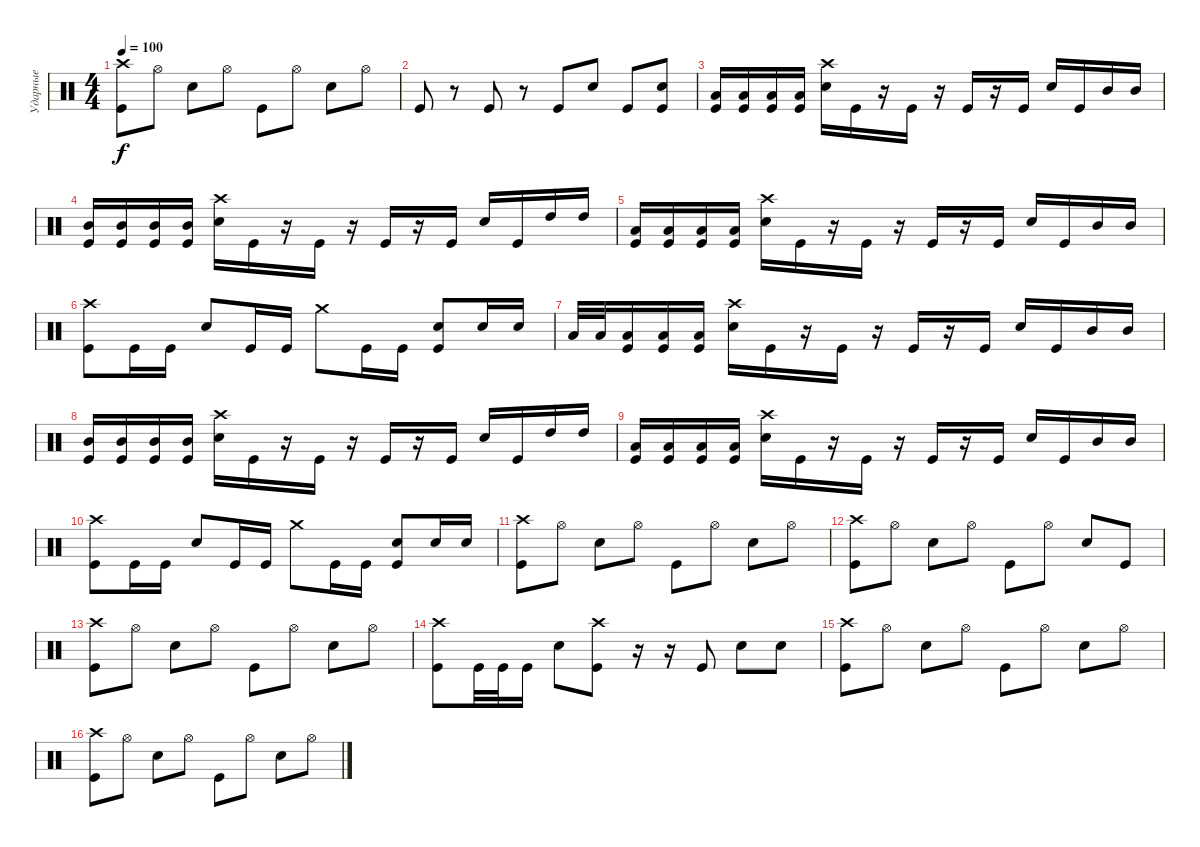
\track ("Ударные" "Ударные") {instrument percussion}
\staff {score}
\articulation defaults
\ts (4 4)
\tempo 100
\clef neutral
\ks c
("Crash high (hit)" "Kick (hit)").8{dy f} "Hi-Hat (open)".8 "Electric Snare (hit)".8 "Hi-Hat (open)".8 "Kick (hit)".8 "Hi-Hat (open)".8 "Electric Snare (hit)".8 "Hi-Hat (open)".8 |
"Kick (hit)".8 r.8 "Kick (hit)".8 r.8 "Kick (hit)".8 "Electric Snare (hit)".8 "Kick (hit)".8 ("Electric Snare (hit)" "Kick (hit)").8 |
("Low Tom (hit)" "Kick (hit)").16 ("Low Tom (hit)" "Kick (hit)").16 ("Low Tom (hit)" "Kick (hit)").16 ("Low Tom (hit)" "Kick (hit)").16 ("Crash high (hit)" "Electric Snare (hit)").16 "Kick (hit)".16 r.16 "Kick (hit)".16 r.16 "Kick (hit)".16 r.16 "Kick (hit)".16 "Electric Snare (hit)".16 "Kick (hit)".16 "Mid Tom (hit)".16 "Mid Tom (hit)".16 |
("Mid Tom (hit)" "Kick (hit)").16 ("Mid Tom (hit)" "Kick (hit)").16 ("Mid Tom (hit)" "Kick (hit)").16 ("Mid Tom (hit)" "Kick (hit)").16 ("Crash high (hit)" "Electric Snare (hit)").16 "Kick (hit)".16 r.16 "Kick (hit)".16 r.16 "Kick (hit)".16 r.16 "Kick (hit)".16 "Electric Snare (hit)".16 "Kick (hit)".16 "High Tom (hit)".16 "High Tom (hit)".16 |
("Low Tom (hit)" "Kick (hit)").16 ("Low Tom (hit)" "Kick (hit)").16 ("Low Tom (hit)" "Kick (hit)").16 ("Low Tom (hit)" "Kick (hit)").16 ("Crash high (hit)" "Electric Snare (hit)").16 "Kick (hit)".16 r.16 "Kick (hit)".16 r.16 "Kick (hit)".16 r.16 "Kick (hit)".16 "Electric Snare (hit)".16 "Kick (hit)".16 "Mid Tom (hit)".16 "Mid Tom (hit)".16 |
("Crash high (hit)" "Kick (hit)").8 "Kick (hit)".16 "Kick (hit)".16 "Electric Snare (hit)".8 "Kick (hit)".16 "Kick (hit)".16 "Crash medium (hit)".8 "Kick (hit)".16 "Kick (hit)".16 ("Electric Snare (hit)" "Kick (hit)").8 "Electric Snare (hit)".16 "Electric Snare (hit)".16 |
"Low Tom (hit)".32 "Low Tom (hit)".32 ("Low Tom (hit)" "Kick (hit)").16 ("Low Tom (hit)" "Kick (hit)").16 ("Low Tom (hit)" "Kick (hit)").16 ("Crash high (hit)" "Electric Snare (hit)").16 "Kick (hit)".16 r.16 "Kick (hit)".16 r.16 "Kick (hit)".16 r.16 "Kick (hit)".16 "Electric Snare (hit)".16 "Kick (hit)".16 "Mid Tom (hit)".16 "Mid Tom (hit)".16 |
("Mid Tom (hit)" "Kick (hit)").16 ("Mid Tom (hit)" "Kick (hit)").16 ("Mid Tom (hit)" "Kick (hit)").16 ("Mid Tom (hit)" "Kick (hit)").16 ("Crash high (hit)" "Electric Snare (hit)").16 "Kick (hit)".16 r.16 "Kick (hit)".16 r.16 "Kick (hit)".16 r.16 "Kick (hit)".16 "Electric Snare (hit)".16 "Kick (hit)".16 "High Tom (hit)".16 "High Tom (hit)".16 |
("Low Tom (hit)" "Kick (hit)").16 ("Low Tom (hit)" "Kick (hit)").16 ("Low Tom (hit)" "Kick (hit)").16 ("Low Tom (hit)" "Kick (hit)").16 ("Crash high (hit)" "Electric Snare (hit)").16 "Kick (hit)".16 r.16 "Kick (hit)".16 r.16 "Kick (hit)".16 r.16 "Kick (hit)".16 "Electric Snare (hit)".16 "Kick (hit)".16 "Mid Tom (hit)".16 "Mid Tom (hit)".16 |
("Crash high (hit)" "Kick (hit)").8 "Kick (hit)".16 "Kick (hit)".16 "Electric Snare (hit)".8 "Kick (hit)".16 "Kick (hit)".16 "Crash medium (hit)".8 "Kick (hit)".16 "Kick (hit)".16 ("Electric Snare (hit)" "Kick (hit)").8 "Electric Snare (hit)".16 "Electric Snare (hit)".16 |
("Crash high (hit)" "Kick (hit)").8 "Hi-Hat (open)".8 "Electric Snare (hit)".8 "Hi-Hat (open)".8 "Kick (hit)".8 "Hi-Hat (open)".8 "Electric Snare (hit)".8 "Hi-Hat (open)".8 |
("Crash high (hit)" "Kick (hit)").8 "Hi-Hat (open)".8 "Electric Snare (hit)".8 "Hi-Hat (open)".8 "Kick (hit)".8 "Hi-Hat (open)".8 "Electric Snare (hit)".8 "Kick (hit)".8 |
("Crash high (hit)" "Kick (hit)").8 "Hi-Hat (open)".8 "Electric Snare (hit)".8 "Hi-Hat (open)".8 "Kick (hit)".8 "Hi-Hat (open)".8 "Electric Snare (hit)".8 "Hi-Hat (open)".8 |
("Crash high (hit)" "Kick (hit)").8 "Kick (hit)".32 "Kick (hit)".32 "Kick (hit)".16 "Electric Snare (hit)".8 ("Crash high (hit)" "Kick (hit)").8 r.16 r.16 "Kick (hit)".8 "Electric Snare (hit)".8 "Electric Snare (hit)".8 |
("Crash high (hit)" "Kick (hit)").8 "Hi-Hat (open)".8 "Electric Snare (hit)".8 "Hi-Hat (open)".8 "Kick (hit)".8 "Hi-Hat (open)".8 "Electric Snare (hit)".8 "Hi-Hat (open)".8 |
("Crash high (hit)" "Kick (hit)").8 "Hi-Hat (open)".8 "Electric Snare (hit)".8 "Hi-Hat (open)".8 "Kick (hit)".8 "Hi-Hat (open)".8 "Electric Snare (hit)".8 "Hi-Hat (open)".8
